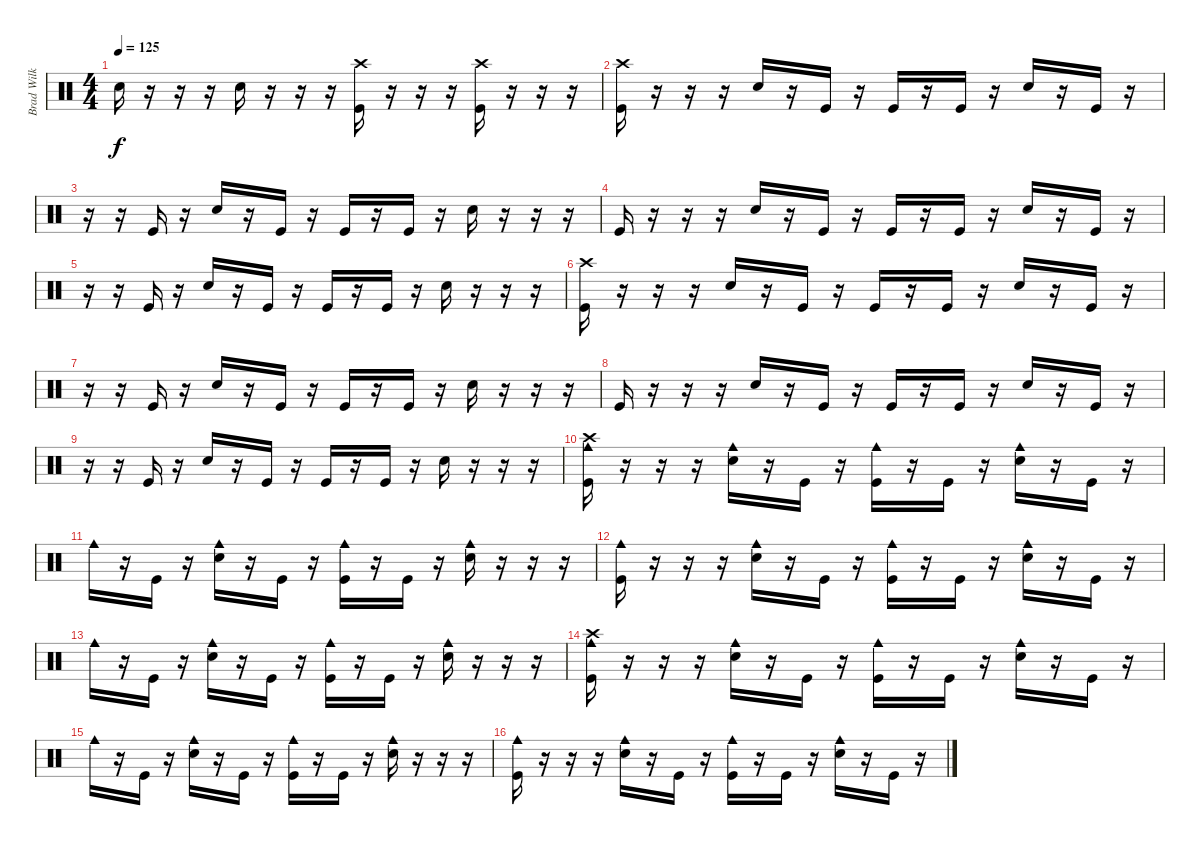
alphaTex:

\track ("Brad Wilk - Drums" "Brad Wilk ") {instrument percussion}
\staff {score}
\articulation defaults
\ts (4 4)
\tempo 125
\clef neutral
\ks c "Snare (hit) 2".16{dy f}
r.16 r.16 r.16 "Snare (hit) 2".16 r.16 r.16 r.16 ("Crash high (hit)" "Kick (hit)").16 r.16 r.16 r.16 ("Crash high (hit)" "Kick (hit)").16 r.16 r.16 r.16 |
("Crash high (hit)" "Kick (hit)").16 r.16 r.16 r.16 "Snare (hit) 2".16 r.16 "Kick (hit)".16 r.16 "Kick (hit)".16 r.16 "Kick (hit)".16 r.16 "Snare (hit) 2".16 r.16 "Kick (hit)".16 r.16 |
r.16 r.16 "Kick (hit)".16 r.16 "Snare (hit) 2".16 r.16 "Kick (hit)".16 r.16 "Kick (hit)".16 r.16 "Kick (hit)".16 r.16 "Snare (hit) 2".16 r.16 r.16 r.16 |
"Kick (hit)".16 r.16 r.16 r.16 "Snare (hit) 2".16 r.16 "Kick (hit)".16 r.16 "Kick (hit)".16 r.16 "Kick (hit)".16 r.16 "Snare (hit) 2".16 r.16 "Kick (hit)".16 r.16 |
r.16 r.16 "Kick (hit)".16 r.16 "Snare (hit) 2".16 r.16 "Kick (hit)".16 r.16 "Kick (hit)".16 r.16 "Kick (hit)".16 r.16 "Snare (hit) 2".16 r.16 r.16 r.16 |
("Crash high (hit)" "Kick (hit)").16 r.16 r.16 r.16 "Snare (hit) 2".16 r.16 "Kick (hit)".16 r.16 "Kick (hit)".16 r.16 "Kick (hit)".16 r.16 "Snare (hit) 2".16 r.16 "Kick (hit)".16 r.16 |
r.16 r.16 "Kick (hit)".16 r.16 "Snare (hit) 2".16 r.16 "Kick (hit)".16 r.16 "Kick (hit)".16 r.16 "Kick (hit)".16 r.16 "Snare (hit) 2".16 r.16 r.16 r.16 |
"Kick (hit)".16 r.16 r.16 r.16 "Snare (hit) 2".16 r.16 "Kick (hit)".16 r.16 "Kick (hit)".16 r.16 "Kick (hit)".16 r.16 "Snare (hit) 2".16 r.16 "Kick (hit)".16 r.16 |
r.16 r.16 "Kick (hit)".16 r.16 "Snare (hit) 2".16 r.16 "Kick (hit)".16 r.16 "Kick (hit)".16 r.16 "Kick (hit)".16 r.16 "Snare (hit) 2".16 r.16 r.16 r.16 |
("Crash high (hit)" "Cowbell medium (hit)" "Kick (hit)").16 r.16 r.16 r.16 ("Snare (hit) 2" "Cowbell medium (hit)").16 r.16 "Kick (hit)".16 r.16 ("Cowbell medium (hit)" "Kick (hit)").16 r.16 "Kick (hit)".16 r.16 ("Snare (hit) 2" "Cowbell medium (hit)").16 r.16 "Kick (hit)".16 r.16 |
"Cowbell medium (hit)".16 r.16 "Kick (hit)".16 r.16 ("Snare (hit) 2" "Cowbell medium (hit)").16 r.16 "Kick (hit)".16 r.16 ("Cowbell medium (hit)" "Kick (hit)").16 r.16 "Kick (hit)".16 r.16 ("Snare (hit) 2" "Cowbell medium (hit)").16 r.16 r.16 r.16 |
("Cowbell medium (hit)" "Kick (hit)").16 r.16 r.16 r.16 ("Snare (hit) 2" "Cowbell medium (hit)").16 r.16 "Kick (hit)".16 r.16 ("Cowbell medium (hit)" "Kick (hit)").16 r.16 "Kick (hit)".16 r.16 ("Snare (hit) 2" "Cowbell medium (hit)").16 r.16 "Kick (hit)".16 r.16 |
"Cowbell medium (hit)".16 r.16 "Kick (hit)".16 r.16 ("Snare (hit) 2" "Cowbell medium (hit)").16 r.16 "Kick (hit)".16 r.16 ("Cowbell medium (hit)" "Kick (hit)").16 r.16 "Kick (hit)".16 r.16 ("Snare (hit) 2" "Cowbell medium (hit)").16 r.16 r.16 r.16 |
("Crash high (hit)" "Cowbell medium (hit)" "Kick (hit)").16 r.16 r.16 r.16 ("Snare (hit) 2" "Cowbell medium (hit)").16 r.16 "Kick (hit)".16 r.16 ("Cowbell medium (hit)" "Kick (hit)").16 r.16 "Kick (hit)".16 r.16 ("Snare (hit) 2" "Cowbell medium (hit)").16 r.16 "Kick (hit)".16 r.16 |
"Cowbell medium (hit)".16 r.16 "Kick (hit)".16 r.16 ("Snare (hit) 2" "Cowbell medium (hit)").16 r.16 "Kick (hit)".16 r.16 ("Cowbell medium (hit)" "Kick (hit)").16 r.16 "Kick (hit)".16 r.16 ("Snare (hit) 2" "Cowbell medium (hit)").16 r.16 r.16 r.16 |
("Cowbell medium (hit)" "Kick (hit)").16 r.16 r.16 r.16 ("Snare (hit) 2" "Cowbell medium (hit)").16 r.16 "Kick (hit)".16 r.16 ("Cowbell medium (hit)" "Kick (hit)").16 r.16 "Kick (hit)".16 r.16 ("Snare (hit) 2" "Cowbell medium (hit)").16 r.16 "Kick (hit)".16 r.16
